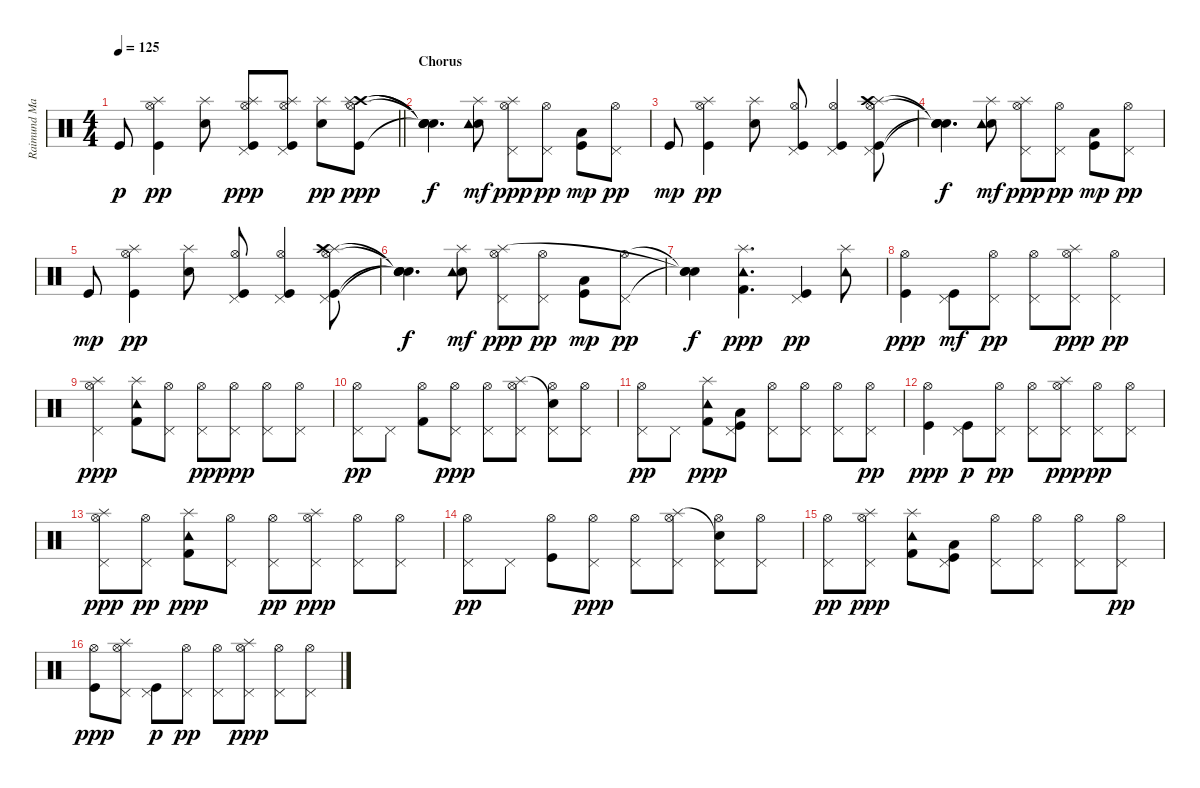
\track ("Raimund Marasigan (Drums)" "Raimund Ma") {instrument percussion}
\staff {score}
\articulation defaults
\ts (4 4)
\tempo 125
\clef neutral
\barLineRight lightlight
\ks c "Kick (hit)".8{dy p}
("Kick (hit)" "Splash (hit)" "Hi-Hat (open)").4{dy pp} ("Electric Snare (hit)" "Splash (hit)").8 ("Kick (hit)" "Pedal Hi-Hat (hit)" "Hi-Hat (open)" "Splash (hit)").8{dy ppp} ("Kick (hit)" "Pedal Hi-Hat (hit)" "Hi-Hat (open)" "Splash (hit)").8 ("Electric Snare (hit)" "Splash (hit)").8{dy pp} ("Crash high (hit)" "Kick (hit)" "Hi-Hat (open)" "Splash (hit)").8{dy ppp} |
\section ("" "Chorus")
("Snare (hit)"{t} "Snare (hit)"{t} "Snare (hit)"{t} "Snare (hit)"{t}).4{d dy f} ("Electric Snare (hit)" "Splash (hit)" "Tambourine (hit)").8{dy mf} ("Pedal Hi-Hat (hit)" "Hi-Hat (open)" "Splash (hit)").8{dy ppp} ("Pedal Hi-Hat (hit)" "Hi-Hat (open)").8{dy pp} ("Kick (hit)" "Low Tom (hit)").8{dy mp} ("Pedal Hi-Hat (hit)" "Hi-Hat (open)").8{dy pp} |
"Kick (hit)".8{dy mp} ("Kick (hit)" "Splash (hit)" "Hi-Hat (open)").4{dy pp} ("Electric Snare (hit)" "Splash (hit)").8 ("Kick (hit)" "Pedal Hi-Hat (hit)" "Hi-Hat (open)").8 ("Kick (hit)" "Pedal Hi-Hat (hit)" "Hi-Hat (open)").4 ("Kick (hit)" "Pedal Hi-Hat (hit)" "Hi-Hat (open)" "Splash (hit)" "Crash high (hit)").8 |
("Snare (hit)"{t} "Snare (hit)"{t} "Snare (hit)"{t} "Snare (hit)"{t}).4{d dy f} ("Electric Snare (hit)" "Splash (hit)" "Tambourine (hit)").8{dy mf} ("Pedal Hi-Hat (hit)" "Hi-Hat (open)" "Splash (hit)").8{dy ppp} ("Pedal Hi-Hat (hit)" "Hi-Hat (open)").8{dy pp} ("Kick (hit)" "Low Tom (hit)").8{dy mp} ("Pedal Hi-Hat (hit)" "Hi-Hat (open)").8{dy pp} |
"Kick (hit)".8{dy mp} ("Kick (hit)" "Splash (hit)" "Hi-Hat (open)").4{dy pp} ("Electric Snare (hit)" "Splash (hit)").8 ("Kick (hit)" "Pedal Hi-Hat (hit)" "Hi-Hat (open)").8 ("Kick (hit)" "Pedal Hi-Hat (hit)" "Hi-Hat (open)").4 ("Kick (hit)" "Pedal Hi-Hat (hit)" "Hi-Hat (open)" "Splash (hit)" "Crash high (hit)").8 |
("Snare (hit)"{t} "Snare (hit)"{t} "Snare (hit)"{t} "Snare (hit)"{t}).4{d dy f} ("Electric Snare (hit)" "Splash (hit)" "Tambourine (hit)").8{dy mf} ("Pedal Hi-Hat (hit)" "Hi-Hat (open)" "Splash (hit)").8{dy ppp} ("Pedal Hi-Hat (hit)" "Hi-Hat (open)").8{dy pp} ("Kick (hit)" "Low Tom (hit)").8{dy mp} ("Pedal Hi-Hat (hit)" "Hi-Hat (open)").8{dy pp} |
("Snare (hit)"{t} "Snare (hit)"{t} "Snare (hit)"{t}).4{dy f} ("Kick (hit) 2" "Tambourine (hit)" "Splash (hit)").4{d bd 60 dy ppp} ("Kick (hit)" "Pedal Hi-Hat (hit)").4{dy pp} ("Splash (hit)" "Tambourine (hit)").8 |
("Kick (hit)" "Hi-Hat (open)").4{dy ppp} ("Pedal Hi-Hat (hit)" "Kick (hit)").8{dy mf} ("Pedal Hi-Hat (hit)" "Hi-Hat (open)").8{dy pp} ("Pedal Hi-Hat (hit)" "Hi-Hat (open)").8 ("Pedal Hi-Hat (hit)" "Hi-Hat (open)" "Splash (hit)").8{dy ppp} ("Pedal Hi-Hat (hit)" "Hi-Hat (open)").4{dy pp} |
("Pedal Hi-Hat (hit)" "Hi-Hat (open)" "Splash (hit)").4{dy ppp} ("Kick (hit) 2" "Tambourine (hit)" "Splash (hit)").8{bd 60} ("Pedal Hi-Hat (hit)" "Hi-Hat (open)").8 ("Pedal Hi-Hat (hit)" "Hi-Hat (open)").8{dy pp} ("Pedal Hi-Hat (hit)" "Hi-Hat (open)").8{dy ppp} ("Pedal Hi-Hat (hit)" "Hi-Hat (open)").8 ("Pedal Hi-Hat (hit)" "Hi-Hat (open)").8 |
("Pedal Hi-Hat (hit)" "Hi-Hat (open)").8{dy pp} "Pedal Hi-Hat (hit)".8 ("Kick (hit) 2" "Hi-Hat (open)").8{bd 60} ("Pedal Hi-Hat (hit)" "Hi-Hat (open)").8{dy ppp} ("Pedal Hi-Hat (hit)" "Hi-Hat (open)").8 ("Pedal Hi-Hat (hit)" "Hi-Hat (open)" "Splash (hit)").8 ("Pedal Hi-Hat (hit)" "Hi-Hat (open)" "Snare (hit)"{t}).8 ("Pedal Hi-Hat (hit)" "Hi-Hat (open)").8 |
("Pedal Hi-Hat (hit)" "Hi-Hat (open)").8{dy pp} "Pedal Hi-Hat (hit)".8 ("Kick (hit) 2" "Tambourine (hit)" "Splash (hit)").8{bd 60 dy ppp} ("Pedal Hi-Hat (hit)" "Kick (hit)" "Low Tom (hit)").8 ("Pedal Hi-Hat (hit)" "Hi-Hat (open)").8 ("Pedal Hi-Hat (hit)" "Hi-Hat (open)").8 ("Pedal Hi-Hat (hit)" "Hi-Hat (open)").8 ("Pedal Hi-Hat (hit)" "Hi-Hat (open)").8{dy pp} |
("Kick (hit)" "Hi-Hat (open)").4{dy ppp} ("Pedal Hi-Hat (hit)" "Kick (hit)").8{dy p} ("Pedal Hi-Hat (hit)" "Hi-Hat (open)").8{dy pp} ("Pedal Hi-Hat (hit)" "Hi-Hat (open)").8 ("Pedal Hi-Hat (hit)" "Hi-Hat (open)" "Splash (hit)").8{dy ppp} ("Pedal Hi-Hat (hit)" "Hi-Hat (open)").8{dy pp} ("Pedal Hi-Hat (hit)" "Hi-Hat (open)").8 |
("Pedal Hi-Hat (hit)" "Hi-Hat (open)" "Splash (hit)").8{dy ppp} ("Pedal Hi-Hat (hit)" "Hi-Hat (open)").8{dy pp} ("Kick (hit) 2" "Tambourine (hit)" "Splash (hit)").8{bd 60 dy ppp} ("Pedal Hi-Hat (hit)" "Hi-Hat (open)").8 ("Pedal Hi-Hat (hit)" "Hi-Hat (open)").8{dy pp} ("Pedal Hi-Hat (hit)" "Hi-Hat (open)" "Splash (hit)").8{dy ppp} ("Pedal Hi-Hat (hit)" "Hi-Hat (open)").8 ("Pedal Hi-Hat (hit)" "Hi-Hat (open)").8 |
("Pedal Hi-Hat (hit)" "Hi-Hat (open)").8{dy pp} "Pedal Hi-Hat (hit)".8 ("Kick (hit)" "Hi-Hat (open)").8{bd 60} ("Pedal Hi-Hat (hit)" "Hi-Hat (open)").8{dy ppp} ("Pedal Hi-Hat (hit)" "Hi-Hat (open)").8 ("Pedal Hi-Hat (hit)" "Hi-Hat (open)" "Splash (hit)").8 ("Pedal Hi-Hat (hit)" "Hi-Hat (open)" "Snare (hit)"{t}).8 ("Pedal Hi-Hat (hit)" "Hi-Hat (open)").8 |
("Pedal Hi-Hat (hit)" "Hi-Hat (open)").8{dy pp} ("Pedal Hi-Hat (hit)" "Hi-Hat (open)" "Splash (hit)").8{dy ppp} ("Kick (hit) 2" "Tambourine (hit)" "Splash (hit)").8{bd 60} ("Pedal Hi-Hat (hit)" "Kick (hit)" "Low Tom (hit)").8 ("Pedal Hi-Hat (hit)" "Hi-Hat (open)").8 ("Pedal Hi-Hat (hit)" "Hi-Hat (open)").8 ("Pedal Hi-Hat (hit)" "Hi-Hat (open)").8 ("Pedal Hi-Hat (hit)" "Hi-Hat (open)").8{dy pp} |
("Kick (hit)" "Hi-Hat (open)").8{dy ppp} ("Pedal Hi-Hat (hit)" "Hi-Hat (open)" "Splash (hit)").8 ("Pedal Hi-Hat (hit)" "Kick (hit)").8{dy p} ("Pedal Hi-Hat (hit)" "Hi-Hat (open)").8{dy pp} ("Pedal Hi-Hat (hit)" "Hi-Hat (open)").8 ("Pedal Hi-Hat (hit)" "Hi-Hat (open)" "Splash (hit)").8{dy ppp} ("Pedal Hi-Hat (hit)" "Hi-Hat (open)").8 ("Pedal Hi-Hat (hit)" "Hi-Hat (open)").8
